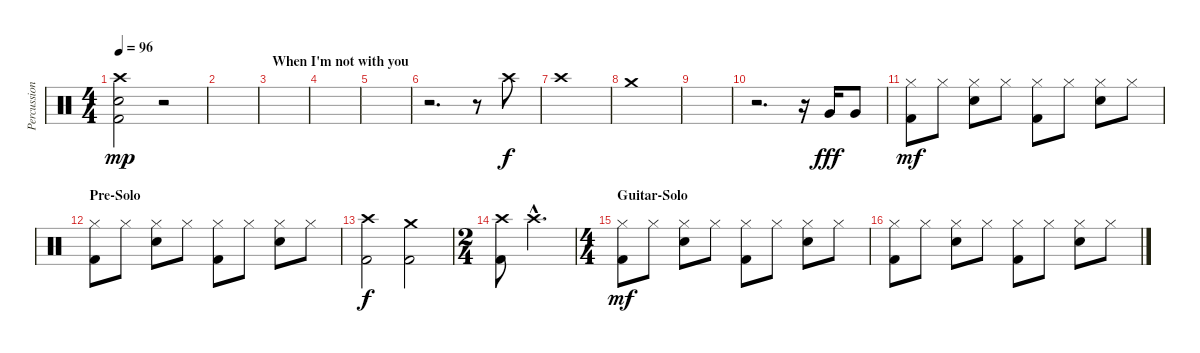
\track ("Percussion - Roger Taylor" "Percussion") {instrument percussion}
\staff {score}
\articulation defaults
\ts (4 4)
\tempo 96
\clef neutral
\ks c
("Crash high (hit)" "Electric Snare (hit)" "Kick (hit) 2").2{dy mp} r.2 |
|
\section ("" "When I'm not with you")
|
|
|
r.2{d} r.8 "Crash high (hit)".8{dy f} |
"Crash high (hit)".1 |
"Crash medium (hit)".1 |
|
r.2{d} r.16 "Very Low Tom (hit)".16{dy fff} "Very Low Tom (hit)".8 |
("Hi-Hat (closed)" "Kick (hit) 2").8{dy mf} "Hi-Hat (closed)".8 ("Hi-Hat (closed)" "Electric Snare (hit)").8 "Hi-Hat (closed)".8 ("Hi-Hat (closed)" "Kick (hit) 2").8 "Hi-Hat (closed)".8 ("Hi-Hat (closed)" "Electric Snare (hit)").8 "Hi-Hat (closed)".8 |
\section ("" "Pre-Solo")
("Hi-Hat (closed)" "Kick (hit) 2").8 "Hi-Hat (closed)".8 ("Hi-Hat (closed)" "Electric Snare (hit)").8 "Hi-Hat (closed)".8 ("Hi-Hat (closed)" "Kick (hit) 2").8 "Hi-Hat (closed)".8 ("Hi-Hat (closed)" "Electric Snare (hit)").8 "Hi-Hat (closed)".8 |
("Crash high (hit)" "Kick (hit) 2").2{dy f} ("Crash medium (hit)" "Kick (hit) 2").2 |
\ts (2 4)
("Crash high (hit)" "Kick (hit) 2").8 "Crash high (hit)"{hac}.4{d} |
\ts (4 4)
\section ("" "Guitar-Solo")
("Hi-Hat (closed)" "Kick (hit) 2").8{dy mf} "Hi-Hat (closed)".8 ("Hi-Hat (closed)" "Electric Snare (hit)").8 "Hi-Hat (closed)".8 ("Hi-Hat (closed)" "Kick (hit) 2").8 "Hi-Hat (closed)".8 ("Hi-Hat (closed)" "Electric Snare (hit)").8 "Hi-Hat (closed)".8 |
("Hi-Hat (closed)" "Kick (hit) 2").8 "Hi-Hat (closed)".8 ("Hi-Hat (closed)" "Electric Snare (hit)").8 "Hi-Hat (closed)".8 ("Hi-Hat (closed)" "Kick (hit) 2").8 "Hi-Hat (closed)".8 ("Hi-Hat (closed)" "Electric Snare (hit)").8 "Hi-Hat (closed)".8
